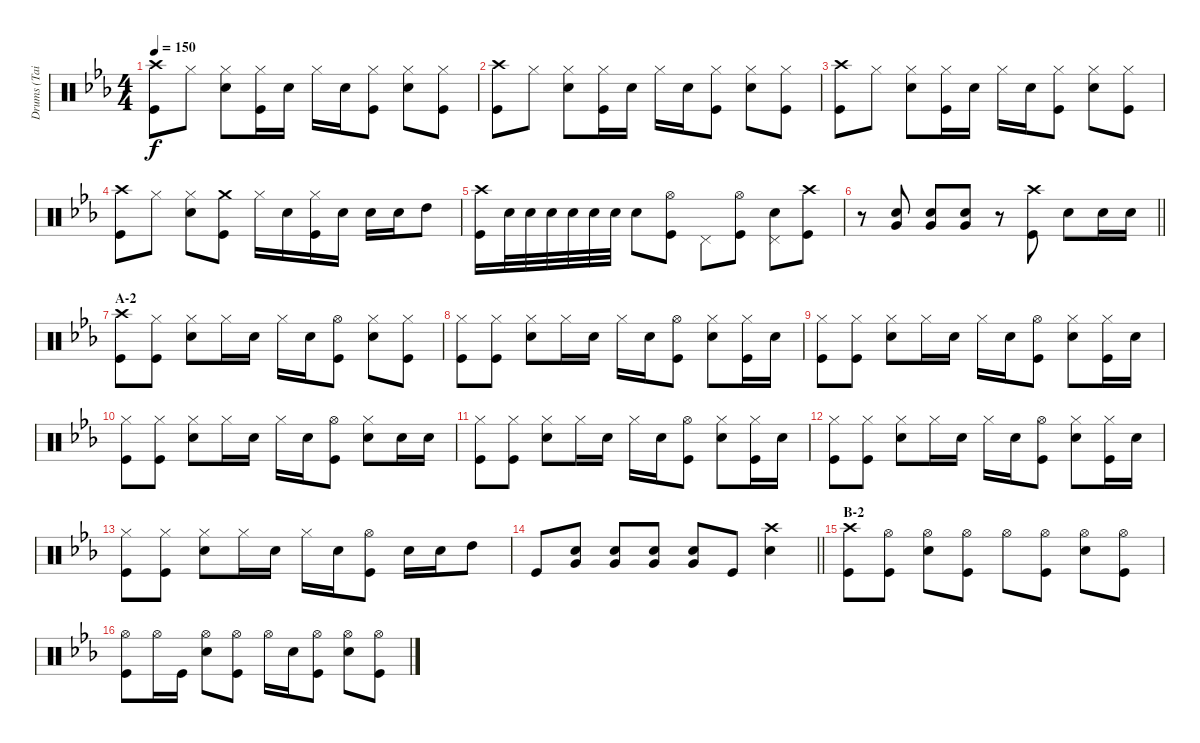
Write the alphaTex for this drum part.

\track ("Drums (Tainaka Ritsu)" "Drums (Tai") {instrument percussion}
\staff {score}
\articulation defaults
\ts (4 4)
\tempo 150
\clef neutral
\ks eb
("Crash high (hit)" "Kick (hit)").8{dy f} "Hi-Hat (closed)".8 ("Hi-Hat (closed)" "Snare (hit) 2").8 ("Hi-Hat (closed)" "Kick (hit)").16 "Snare (hit) 2".16 "Hi-Hat (closed)".16 "Snare (hit) 2".16 ("Hi-Hat (closed)" "Kick (hit)").8 ("Hi-Hat (closed)" "Snare (hit) 2").8 ("Hi-Hat (closed)" "Kick (hit)").8 |
("Crash high (hit)" "Kick (hit)").8 "Hi-Hat (closed)".8 ("Hi-Hat (closed)" "Snare (hit) 2").8 ("Hi-Hat (closed)" "Kick (hit)").16 "Snare (hit) 2".16 "Hi-Hat (closed)".16 "Snare (hit) 2".16 ("Hi-Hat (closed)" "Kick (hit)").8 ("Hi-Hat (closed)" "Snare (hit) 2").8 ("Hi-Hat (closed)" "Kick (hit)").8 |
("Crash high (hit)" "Kick (hit)").8 "Hi-Hat (closed)".8 ("Hi-Hat (closed)" "Snare (hit) 2").8 ("Hi-Hat (closed)" "Kick (hit)").16 "Snare (hit) 2".16 "Hi-Hat (closed)".16 "Snare (hit) 2".16 ("Hi-Hat (closed)" "Kick (hit)").8 ("Hi-Hat (closed)" "Snare (hit) 2").8 ("Hi-Hat (closed)" "Kick (hit)").8 |
("Crash high (hit)" "Kick (hit)").8 "Hi-Hat (closed)".8 ("Hi-Hat (closed)" "Snare (hit) 2").8 ("Crash medium (hit)" "Kick (hit)").8 "Hi-Hat (closed)".16 "Snare (hit) 2".16 ("Hi-Hat (closed)" "Kick (hit)").16 "Snare (hit) 2".16 "Snare (hit) 2".16 "Snare (hit) 2".16 "High Tom (hit)".8 |
("Crash high (hit)" "Kick (hit)").16 "Snare (hit) 2".32 "Snare (hit) 2".32 "Snare (hit) 2".32 "Snare (hit) 2".32 "Snare (hit) 2".32 "Snare (hit) 2".32 "Snare (hit) 2".8 ("Hi-Hat (open)" "Kick (hit)").8 "Pedal Hi-Hat (hit)".8 ("Hi-Hat (open)" "Kick (hit)").8 ("Pedal Hi-Hat (hit)" "Snare (hit) 2").8 ("Crash high (hit)" "Kick (hit)").8 |
\barLineRight lightlight
r.8 ("Snare (hit) 2" "Very Low Tom (hit)").8 ("Snare (hit) 2" "Very Low Tom (hit)").8 ("Snare (hit) 2" "Very Low Tom (hit)").8 r.8 ("Crash high (hit)" "Kick (hit)").8 "Snare (hit) 2".8 "Snare (hit) 2".16 "Snare (hit) 2".16 |
\section ("" "A-2")
("Crash high (hit)" "Kick (hit)").8 ("Hi-Hat (closed)" "Kick (hit)").8 ("Hi-Hat (closed)" "Snare (hit) 2").8 "Hi-Hat (closed)".16 "Snare (hit) 2".16 "Hi-Hat (closed)".16 "Snare (hit) 2".16 ("Hi-Hat (open)" "Kick (hit)").8 ("Hi-Hat (closed)" "Snare (hit) 2").8 ("Hi-Hat (closed)" "Kick (hit)").8 |
("Hi-Hat (closed)" "Kick (hit)").8 ("Hi-Hat (closed)" "Kick (hit)").8 ("Hi-Hat (closed)" "Snare (hit) 2").8 "Hi-Hat (closed)".16 "Snare (hit) 2".16 "Hi-Hat (closed)".16 "Snare (hit) 2".16 ("Hi-Hat (open)" "Kick (hit)").8 ("Hi-Hat (closed)" "Snare (hit) 2").8 ("Hi-Hat (closed)" "Kick (hit)").16 "Snare (hit) 2".16 |
("Hi-Hat (closed)" "Kick (hit)").8 ("Hi-Hat (closed)" "Kick (hit)").8 ("Hi-Hat (closed)" "Snare (hit) 2").8 "Hi-Hat (closed)".16 "Snare (hit) 2".16 "Hi-Hat (closed)".16 "Snare (hit) 2".16 ("Hi-Hat (open)" "Kick (hit)").8 ("Hi-Hat (closed)" "Snare (hit) 2").8 ("Hi-Hat (closed)" "Kick (hit)").16 "Snare (hit) 2".16 |
("Hi-Hat (closed)" "Kick (hit)").8 ("Hi-Hat (closed)" "Kick (hit)").8 ("Hi-Hat (closed)" "Snare (hit) 2").8 "Hi-Hat (closed)".16 "Snare (hit) 2".16 "Hi-Hat (closed)".16 "Snare (hit) 2".16 ("Hi-Hat (open)" "Kick (hit)").8 ("Hi-Hat (closed)" "Snare (hit) 2").8 "Snare (hit) 2".16 "Snare (hit) 2".16 |
("Hi-Hat (closed)" "Kick (hit)").8 ("Hi-Hat (closed)" "Kick (hit)").8 ("Hi-Hat (closed)" "Snare (hit) 2").8 "Hi-Hat (closed)".16 "Snare (hit) 2".16 "Hi-Hat (closed)".16 "Snare (hit) 2".16 ("Hi-Hat (open)" "Kick (hit)").8 ("Hi-Hat (closed)" "Snare (hit) 2").8 ("Hi-Hat (closed)" "Kick (hit)").16 "Snare (hit) 2".16 |
("Hi-Hat (closed)" "Kick (hit)").8 ("Hi-Hat (closed)" "Kick (hit)").8 ("Hi-Hat (closed)" "Snare (hit) 2").8 "Hi-Hat (closed)".16 "Snare (hit) 2".16 "Hi-Hat (closed)".16 "Snare (hit) 2".16 ("Hi-Hat (open)" "Kick (hit)").8 ("Hi-Hat (closed)" "Snare (hit) 2").8 ("Hi-Hat (closed)" "Kick (hit)").16 "Snare (hit) 2".16 |
("Hi-Hat (closed)" "Kick (hit)").8 ("Hi-Hat (closed)" "Kick (hit)").8 ("Hi-Hat (closed)" "Snare (hit) 2").8 "Hi-Hat (closed)".16 "Snare (hit) 2".16 "Hi-Hat (closed)".16 "Snare (hit) 2".16 ("Hi-Hat (open)" "Kick (hit)").8 "Snare (hit) 2".16 "Snare (hit) 2".16 "High Tom (hit)".8 |
\barLineRight lightlight "Kick (hit)".8
("Snare (hit) 2" "Very Low Tom (hit)").8 ("Snare (hit) 2" "Very Low Tom (hit)").8 ("Snare (hit) 2" "Very Low Tom (hit)").8 ("Snare (hit) 2" "Very Low Tom (hit)").8 "Kick (hit)".8 ("Crash high (hit)" "Snare (hit) 2").4 |
\section ("" "B-2")
("Crash high (hit)" "Kick (hit)").8 ("Hi-Hat (open)" "Kick (hit)").8 ("Hi-Hat (open)" "Snare (hit) 2").8 ("Hi-Hat (open)" "Kick (hit)").8 "Hi-Hat (open)".8 ("Hi-Hat (open)" "Kick (hit)").8 ("Hi-Hat (open)" "Snare (hit) 2").8 ("Hi-Hat (open)" "Kick (hit)").8 |
("Hi-Hat (open)" "Kick (hit)").8 "Hi-Hat (open)".16 "Kick (hit)".16 ("Hi-Hat (open)" "Snare (hit) 2").8 ("Hi-Hat (open)" "Kick (hit)").8 "Hi-Hat (open)".16 "Snare (hit) 2".16 ("Hi-Hat (open)" "Kick (hit)").8 ("Hi-Hat (open)" "Snare (hit) 2").8 ("Hi-Hat (open)" "Kick (hit)").8
